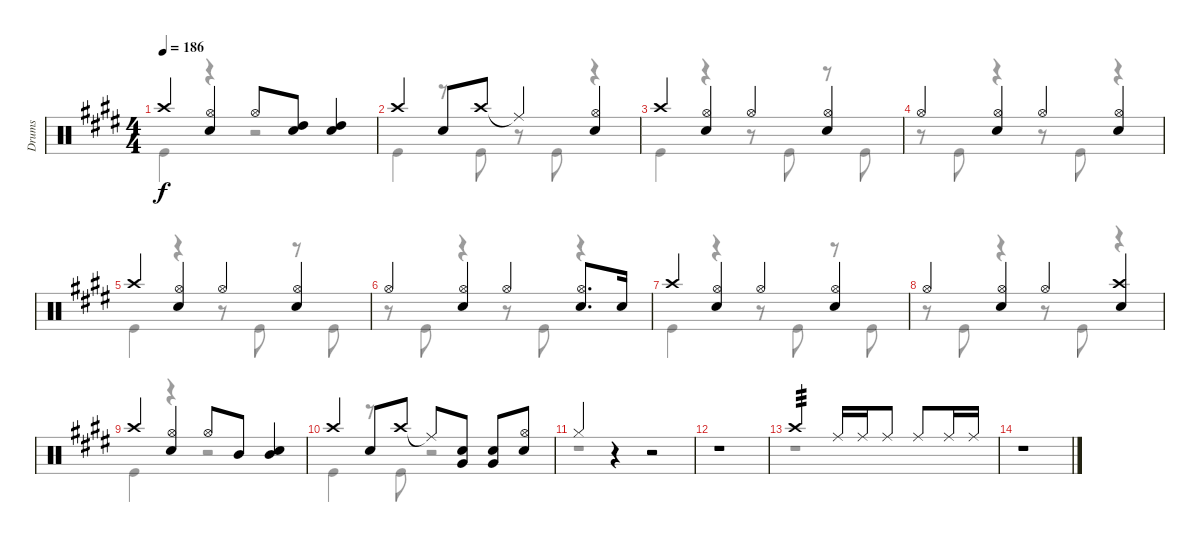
\track ("Drums" "Drums") {instrument percussion}
\staff {score}
\articulation defaults
\voice
\ts (4 4)
\tempo 186
\clef neutral
\ks e "Crash high (hit)".4{dy f beam Up}
("Hi-Hat (open)" "Snare (hit) 2").4{beam Up} "Hi-Hat (open)".8{beam Up} ("High Tom (hit)" "Snare (hit) 2").8{beam Up} ("Snare (hit) 2" "High Tom (hit)").4{beam Up} |
"Crash high (hit)".4{beam Up} "Snare (hit) 2".8{beam Up} "Crash high (hit)".8{beam Up} "Ride (middle)"{t}.4{beam Up} ("Hi-Hat (open)" "Snare (hit) 2").4{beam Up} |
"Crash high (hit)".4{beam Up} ("Hi-Hat (open)" "Snare (hit) 2").4{beam Up} "Hi-Hat (open)".4{beam Up} ("Hi-Hat (open)" "Snare (hit) 2").4{beam Up} |
"Hi-Hat (open)".4{beam Up} ("Hi-Hat (open)" "Snare (hit) 2").4{beam Up} "Hi-Hat (open)".4{beam Up} ("Hi-Hat (open)" "Snare (hit) 2").4{beam Up} |
"Crash high (hit)".4{beam Up} ("Hi-Hat (open)" "Snare (hit) 2").4{beam Up} "Hi-Hat (open)".4{beam Up} ("Hi-Hat (open)" "Snare (hit) 2").4{beam Up} |
"Hi-Hat (open)".4{beam Up} ("Hi-Hat (open)" "Snare (hit) 2").4{beam Up} "Hi-Hat (open)".4{beam Up} ("Hi-Hat (open)" "Snare (hit) 2").8{d beam Up} "Snare (hit) 2".16{beam Up} |
"Crash high (hit)".4{beam Up} ("Hi-Hat (open)" "Snare (hit) 2").4{beam Up} "Hi-Hat (open)".4{beam Up} ("Hi-Hat (open)" "Snare (hit) 2").4{beam Up} |
"Hi-Hat (open)".4{beam Up} ("Hi-Hat (open)" "Snare (hit) 2").4{beam Up} "Hi-Hat (open)".4{beam Up} ("Crash high (hit)" "Snare (hit) 2").4{beam Up} |
"Crash high (hit)".4{beam Up} ("Hi-Hat (open)" "Snare (hit) 2").4{beam Up} "Hi-Hat (open)".8{beam Up} "Mid Tom (hit)".8{beam Up} ("Mid Tom (hit)" "Snare (hit) 2").4{beam Up} |
"Crash high (hit)".4{beam Up} "Snare (hit) 2".8{beam Up} "Crash high (hit)".8{beam Up} "Ride (middle)"{t}.8{beam Up} ("Snare (hit) 2" "Very Low Tom (hit)").8{beam Up} ("Very Low Tom (hit)" "Snare (hit) 2").8{beam Up} ("Snare (hit) 2" "Hi-Hat (open)").8{beam Up} |
"Hi-Hat (closed)".4{beam Up} r.4 r.2 |
r.1 |
"Crash high (hit)".2{tp 3 beam Up} "Ride (middle)".16{beam Up} "Ride (middle)".16{beam Up} "Ride (middle)".8{beam Up} "Ride (middle)".8{beam Up} "Ride (middle)".16{beam Up} "Ride (middle)".16{beam Up} |
r.1
\voice
\clef neutral
\ottava regular
\simile none
\ks e "Kick (hit)".4{dy f}
r.4 r.2 |
"Kick (hit)".4 r.8 "Kick (hit)".8 r.8 "Kick (hit)".8 r.4 |
"Kick (hit)".4 r.4 r.8 "Kick (hit)".8 r.8 "Kick (hit)".8 |
r.8 "Kick (hit)".8 r.4 r.8 "Kick (hit)".8 r.4 |
"Kick (hit)".4 r.4 r.8 "Kick (hit)".8 r.8 "Kick (hit)".8 |
r.8 "Kick (hit)".8 r.4 r.8 "Kick (hit)".8 r.4 |
"Kick (hit)".4 r.4 r.8 "Kick (hit)".8 r.8 "Kick (hit)".8 |
r.8 "Kick (hit)".8 r.4 r.8 "Kick (hit)".8 r.4 |
"Kick (hit)".4 r.4 r.2 |
"Kick (hit)".4 r.8 "Kick (hit)".8 r.2 |
r.1 |
r.1 |
r.1 |
r.1
